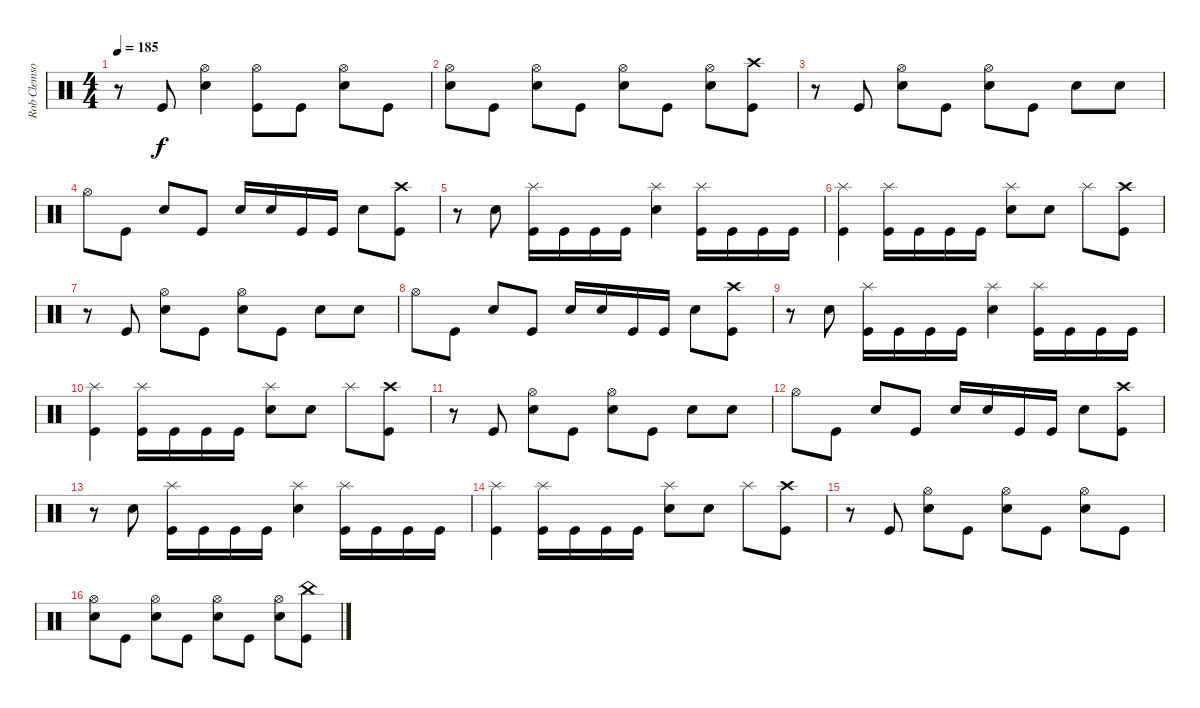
\track ("Rob Clemson (Drums)" "Rob Clemso") {instrument percussion}
\staff {score}
\articulation defaults
\ts (4 4)
\tempo 185
\clef neutral
\ks c
r.8{dy f} "Kick (hit)".8 ("Electric Snare (hit)" "Hi-Hat (open)").4 ("Hi-Hat (open)" "Kick (hit)").8 "Kick (hit)".8 ("Hi-Hat (open)" "Electric Snare (hit)").8 "Kick (hit)".8 |
("Hi-Hat (open)" "Electric Snare (hit)").8 "Kick (hit)".8 ("Hi-Hat (open)" "Electric Snare (hit)").8 "Kick (hit)".8 ("Hi-Hat (open)" "Electric Snare (hit)").8 "Kick (hit)".8 ("Hi-Hat (open)" "Electric Snare (hit)").8 ("Kick (hit)" "Crash high (hit)").8 |
r.8 "Kick (hit)".8 ("Electric Snare (hit)" "Hi-Hat (open)").8 "Kick (hit)".8 ("Electric Snare (hit)" "Hi-Hat (open)").8 "Kick (hit)".8 "Electric Snare (hit)".8 "Electric Snare (hit)".8 |
"Hi-Hat (open)".8 "Kick (hit)".8 "Electric Snare (hit)".8 "Kick (hit)".8 "Electric Snare (hit)".16 "Electric Snare (hit)".16 "Kick (hit)".16 "Kick (hit)".16 "Electric Snare (hit)".8 ("Kick (hit)" "Crash high (hit)").8 |
r.8 "Electric Snare (hit)".8 ("Kick (hit)" "Splash (hit)").16 "Kick (hit)".16 "Kick (hit)".16 "Kick (hit)".16 ("Splash (hit)" "Electric Snare (hit)").4 ("Splash (hit)" "Kick (hit)").16 "Kick (hit)".16 "Kick (hit)".16 "Kick (hit)".16 |
("Kick (hit)" "Splash (hit)").4 ("Kick (hit)" "Splash (hit)").16 "Kick (hit)".16 "Kick (hit)".16 "Kick (hit)".16 ("Splash (hit)" "Electric Snare (hit)").8 "Electric Snare (hit)".8 "Splash (hit)".8 ("Kick (hit)" "Crash high (hit)").8 |
r.8 "Kick (hit)".8 ("Electric Snare (hit)" "Hi-Hat (open)").8 "Kick (hit)".8 ("Electric Snare (hit)" "Hi-Hat (open)").8 "Kick (hit)".8 "Electric Snare (hit)".8 "Electric Snare (hit)".8 |
"Hi-Hat (open)".8 "Kick (hit)".8 "Electric Snare (hit)".8 "Kick (hit)".8 "Electric Snare (hit)".16 "Electric Snare (hit)".16 "Kick (hit)".16 "Kick (hit)".16 "Electric Snare (hit)".8 ("Kick (hit)" "Crash high (hit)").8 |
r.8 "Electric Snare (hit)".8 ("Kick (hit)" "Splash (hit)").16 "Kick (hit)".16 "Kick (hit)".16 "Kick (hit)".16 ("Splash (hit)" "Electric Snare (hit)").4 ("Splash (hit)" "Kick (hit)").16 "Kick (hit)".16 "Kick (hit)".16 "Kick (hit)".16 |
("Kick (hit)" "Splash (hit)").4 ("Kick (hit)" "Splash (hit)").16 "Kick (hit)".16 "Kick (hit)".16 "Kick (hit)".16 ("Splash (hit)" "Electric Snare (hit)").8 "Electric Snare (hit)".8 "Splash (hit)".8 ("Kick (hit)" "Crash high (hit)").8 |
r.8 "Kick (hit)".8 ("Electric Snare (hit)" "Hi-Hat (open)").8 "Kick (hit)".8 ("Electric Snare (hit)" "Hi-Hat (open)").8 "Kick (hit)".8 "Electric Snare (hit)".8 "Electric Snare (hit)".8 |
"Hi-Hat (open)".8 "Kick (hit)".8 "Electric Snare (hit)".8 "Kick (hit)".8 "Electric Snare (hit)".16 "Electric Snare (hit)".16 "Kick (hit)".16 "Kick (hit)".16 "Electric Snare (hit)".8 ("Kick (hit)" "Crash high (hit)").8 |
r.8 "Electric Snare (hit)".8 ("Kick (hit)" "Splash (hit)").16 "Kick (hit)".16 "Kick (hit)".16 "Kick (hit)".16 ("Splash (hit)" "Electric Snare (hit)").4 ("Splash (hit)" "Kick (hit)").16 "Kick (hit)".16 "Kick (hit)".16 "Kick (hit)".16 |
("Kick (hit)" "Splash (hit)").4 ("Kick (hit)" "Splash (hit)").16 "Kick (hit)".16 "Kick (hit)".16 "Kick (hit)".16 ("Splash (hit)" "Electric Snare (hit)").8 "Electric Snare (hit)".8 "Splash (hit)".8 ("Kick (hit)" "Crash high (hit)").8 |
r.8 "Kick (hit)".8 ("Electric Snare (hit)" "Hi-Hat (open)").8 "Kick (hit)".8 ("Electric Snare (hit)" "Hi-Hat (open)").8 "Kick (hit)".8 ("Electric Snare (hit)" "Hi-Hat (open)").8 "Kick (hit)".8 |
("Electric Snare (hit)" "Hi-Hat (open)").8 "Kick (hit)".8 ("Electric Snare (hit)" "Hi-Hat (open)").8 "Kick (hit)".8 ("Electric Snare (hit)" "Hi-Hat (open)").8 "Kick (hit)".8 ("Electric Snare (hit)" "Hi-Hat (open)").8 ("Kick (hit)" "China (hit)").8
